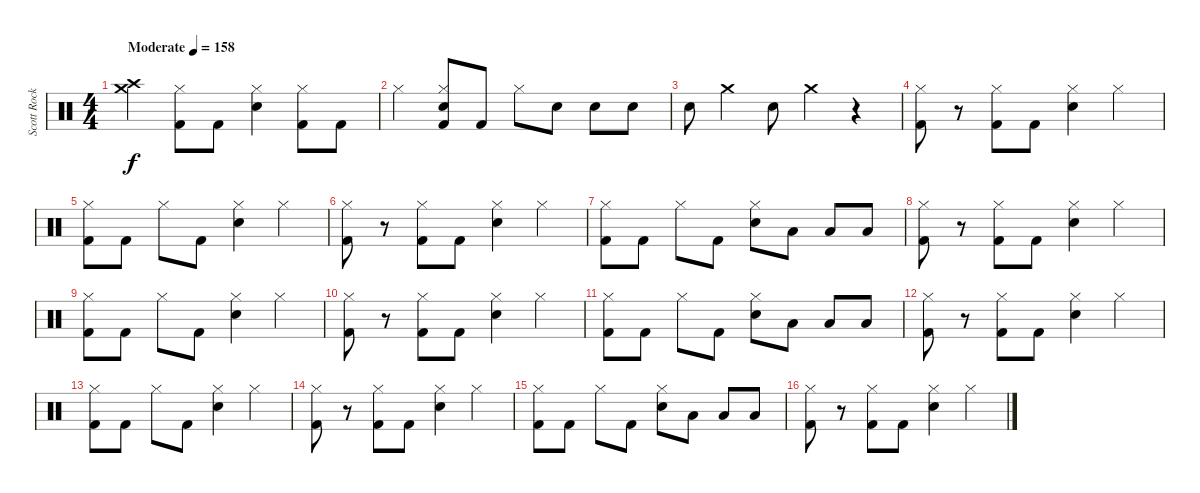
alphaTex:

\track ("Scott Rockenfield" "Scott Rock") {instrument percussion}
\staff {score}
\articulation defaults
\ts (4 4)
\tempo (158 "Moderate")
\clef neutral
\ks c
("Crash medium (hit)" "Crash high (hit)").4{dy f} ("Kick (hit) 2" "Hi-Hat (closed)").8 "Kick (hit) 2".8 ("Hi-Hat (closed)" "Electric Snare (hit)").4 ("Kick (hit) 2" "Hi-Hat (closed)").8 "Kick (hit) 2".8 |
"Hi-Hat (closed)".4 ("Kick (hit) 2" "Hi-Hat (closed)" "Electric Snare (hit)").8 "Kick (hit) 2".8 "Hi-Hat (closed)".8 "Electric Snare (hit)".8 "Electric Snare (hit)".8 "Electric Snare (hit)".8 |
"Electric Snare (hit)".8 "Crash medium (hit)".4 "Electric Snare (hit)".8 "Crash medium (hit)".4 r.4 |
("Kick (hit) 2" "Hi-Hat (closed)").8 r.8 ("Kick (hit) 2" "Hi-Hat (closed)").8 "Kick (hit) 2".8 ("Hi-Hat (closed)" "Electric Snare (hit)").4 "Hi-Hat (closed)".4 |
("Kick (hit) 2" "Hi-Hat (closed)").8 "Kick (hit) 2".8 "Hi-Hat (closed)".8 "Kick (hit) 2".8 ("Hi-Hat (closed)" "Electric Snare (hit)").4 "Hi-Hat (closed)".4 |
("Kick (hit) 2" "Hi-Hat (closed)").8 r.8 ("Kick (hit) 2" "Hi-Hat (closed)").8 "Kick (hit) 2".8 ("Hi-Hat (closed)" "Electric Snare (hit)").4 "Hi-Hat (closed)".4 |
("Kick (hit) 2" "Hi-Hat (closed)").8 "Kick (hit) 2".8 "Hi-Hat (closed)".8 "Kick (hit) 2".8 ("Hi-Hat (closed)" "Electric Snare (hit)").8 "Low Tom (hit)".8 "Low Tom (hit)".8 "Low Floor Tom (hit)".8 |
("Kick (hit) 2" "Hi-Hat (closed)").8 r.8 ("Kick (hit) 2" "Hi-Hat (closed)").8 "Kick (hit) 2".8 ("Hi-Hat (closed)" "Electric Snare (hit)").4 "Hi-Hat (closed)".4 |
("Kick (hit) 2" "Hi-Hat (closed)").8 "Kick (hit) 2".8 "Hi-Hat (closed)".8 "Kick (hit) 2".8 ("Hi-Hat (closed)" "Electric Snare (hit)").4 "Hi-Hat (closed)".4 |
("Kick (hit) 2" "Hi-Hat (closed)").8 r.8 ("Kick (hit) 2" "Hi-Hat (closed)").8 "Kick (hit) 2".8 ("Hi-Hat (closed)" "Electric Snare (hit)").4 "Hi-Hat (closed)".4 |
("Kick (hit) 2" "Hi-Hat (closed)").8 "Kick (hit) 2".8 "Hi-Hat (closed)".8 "Kick (hit) 2".8 ("Hi-Hat (closed)" "Electric Snare (hit)").8 "Low Tom (hit)".8 "Low Tom (hit)".8 "Low Floor Tom (hit)".8 |
("Kick (hit) 2" "Hi-Hat (closed)").8 r.8 ("Kick (hit) 2" "Hi-Hat (closed)").8 "Kick (hit) 2".8 ("Hi-Hat (closed)" "Electric Snare (hit)").4 "Hi-Hat (closed)".4 |
("Kick (hit) 2" "Hi-Hat (closed)").8 "Kick (hit) 2".8 "Hi-Hat (closed)".8 "Kick (hit) 2".8 ("Hi-Hat (closed)" "Electric Snare (hit)").4 "Hi-Hat (closed)".4 |
("Kick (hit) 2" "Hi-Hat (closed)").8 r.8 ("Kick (hit) 2" "Hi-Hat (closed)").8 "Kick (hit) 2".8 ("Hi-Hat (closed)" "Electric Snare (hit)").4 "Hi-Hat (closed)".4 |
("Kick (hit) 2" "Hi-Hat (closed)").8 "Kick (hit) 2".8 "Hi-Hat (closed)".8 "Kick (hit) 2".8 ("Hi-Hat (closed)" "Electric Snare (hit)").8 "Low Tom (hit)".8 "Low Tom (hit)".8 "Low Floor Tom (hit)".8 |
("Kick (hit) 2" "Hi-Hat (closed)").8 r.8 ("Kick (hit) 2" "Hi-Hat (closed)").8 "Kick (hit) 2".8 ("Hi-Hat (closed)" "Electric Snare (hit)").4 "Hi-Hat (closed)".4
